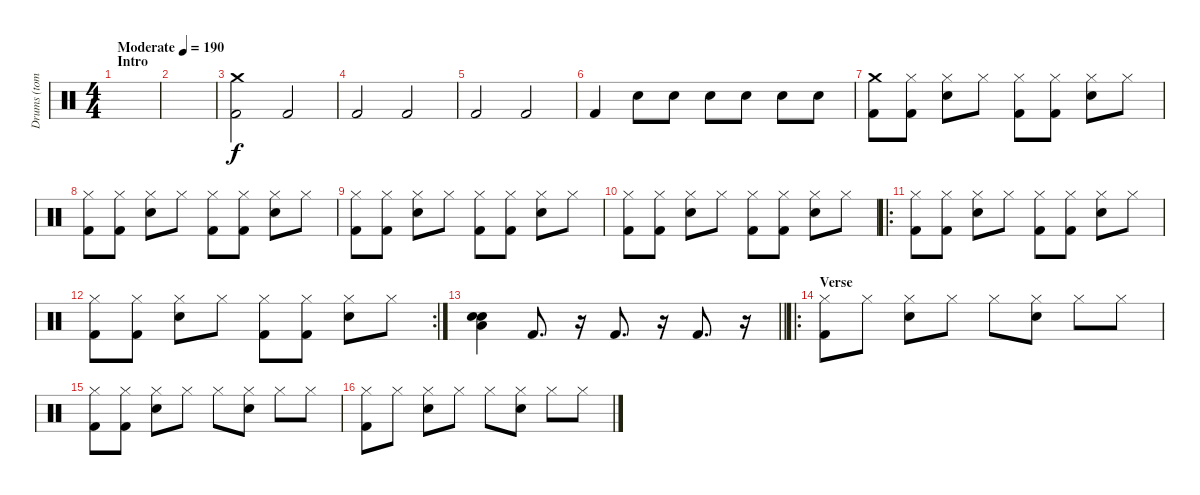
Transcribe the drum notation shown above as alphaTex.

\track ("Drums (tom)" "Drums (tom") {instrument percussion}
\staff {score}
\articulation defaults
\ts (4 4)
\section ("" "Intro")
\tempo (190 "Moderate")
\clef neutral
\ks c
|
|
("Crash medium (hit)" "Kick (hit) 2").2 "Kick (hit) 2".2 |
"Kick (hit) 2".2 "Kick (hit) 2".2 |
"Kick (hit) 2".2 "Kick (hit) 2".2 |
"Kick (hit) 2".4 "Electric Snare (hit)".8 "Electric Snare (hit)".8 "Electric Snare (hit)".8 "Electric Snare (hit)".8 "Electric Snare (hit)".8 "Electric Snare (hit)".8 |
("Crash medium (hit)" "Kick (hit) 2").8 ("Hi-Hat (closed)" "Kick (hit) 2").8 ("Hi-Hat (closed)" "Electric Snare (hit)").8 "Hi-Hat (closed)".8 ("Hi-Hat (closed)" "Kick (hit) 2").8 ("Hi-Hat (closed)" "Kick (hit) 2").8 ("Hi-Hat (closed)" "Electric Snare (hit)").8 "Hi-Hat (closed)".8 |
("Hi-Hat (closed)" "Kick (hit) 2").8 ("Hi-Hat (closed)" "Kick (hit) 2").8 ("Hi-Hat (closed)" "Electric Snare (hit)").8 "Hi-Hat (closed)".8 ("Hi-Hat (closed)" "Kick (hit) 2").8 ("Hi-Hat (closed)" "Kick (hit) 2").8 ("Hi-Hat (closed)" "Electric Snare (hit)").8 "Hi-Hat (closed)".8 |
("Hi-Hat (closed)" "Kick (hit) 2").8 ("Hi-Hat (closed)" "Kick (hit) 2").8 ("Hi-Hat (closed)" "Electric Snare (hit)").8 "Hi-Hat (closed)".8 ("Hi-Hat (closed)" "Kick (hit) 2").8 ("Hi-Hat (closed)" "Kick (hit) 2").8 ("Hi-Hat (closed)" "Electric Snare (hit)").8 "Hi-Hat (closed)".8 |
("Hi-Hat (closed)" "Kick (hit) 2").8 ("Hi-Hat (closed)" "Kick (hit) 2").8 ("Hi-Hat (closed)" "Electric Snare (hit)").8 "Hi-Hat (closed)".8 ("Hi-Hat (closed)" "Kick (hit) 2").8 ("Hi-Hat (closed)" "Kick (hit) 2").8 ("Hi-Hat (closed)" "Electric Snare (hit)").8 "Hi-Hat (closed)".8 |
\ro
("Hi-Hat (closed)" "Kick (hit) 2").8 ("Hi-Hat (closed)" "Kick (hit) 2").8 ("Hi-Hat (closed)" "Electric Snare (hit)").8 "Hi-Hat (closed)".8 ("Hi-Hat (closed)" "Kick (hit) 2").8 ("Hi-Hat (closed)" "Kick (hit) 2").8 ("Hi-Hat (closed)" "Electric Snare (hit)").8 "Hi-Hat (closed)".8 |
\rc 2
("Hi-Hat (closed)" "Kick (hit) 2").8 ("Hi-Hat (closed)" "Kick (hit) 2").8 ("Hi-Hat (closed)" "Electric Snare (hit)").8 "Hi-Hat (closed)".8 ("Hi-Hat (closed)" "Kick (hit) 2").8 ("Hi-Hat (closed)" "Kick (hit) 2").8 ("Hi-Hat (closed)" "Electric Snare (hit)").8 "Hi-Hat (closed)".8 |
\barLineRight lightlight
("Low Floor Tom (hit)" "Electric Snare (hit)" "Snare (hit)").4 "Kick (hit) 2".8{d} r.16 "Kick (hit) 2".8{d} r.16 "Kick (hit) 2".8{d} r.16 |
\ro
\section ("" "Verse")
("Hi-Hat (closed)" "Kick (hit) 2").8 "Hi-Hat (closed)".8 ("Hi-Hat (closed)" "Electric Snare (hit)").8 "Hi-Hat (closed)".8 "Hi-Hat (closed)".8 ("Hi-Hat (closed)" "Electric Snare (hit)").8 "Hi-Hat (closed)".8 "Hi-Hat (closed)".8 |
("Hi-Hat (closed)" "Kick (hit) 2").8 ("Hi-Hat (closed)" "Kick (hit) 2").8 ("Hi-Hat (closed)" "Electric Snare (hit)").8 "Hi-Hat (closed)".8 "Hi-Hat (closed)".8 ("Hi-Hat (closed)" "Electric Snare (hit)").8 "Hi-Hat (closed)".8 "Hi-Hat (closed)".8 |
("Hi-Hat (closed)" "Kick (hit) 2").8 "Hi-Hat (closed)".8 ("Hi-Hat (closed)" "Electric Snare (hit)").8 "Hi-Hat (closed)".8 "Hi-Hat (closed)".8 ("Hi-Hat (closed)" "Electric Snare (hit)").8 "Hi-Hat (closed)".8 "Hi-Hat (closed)".8
